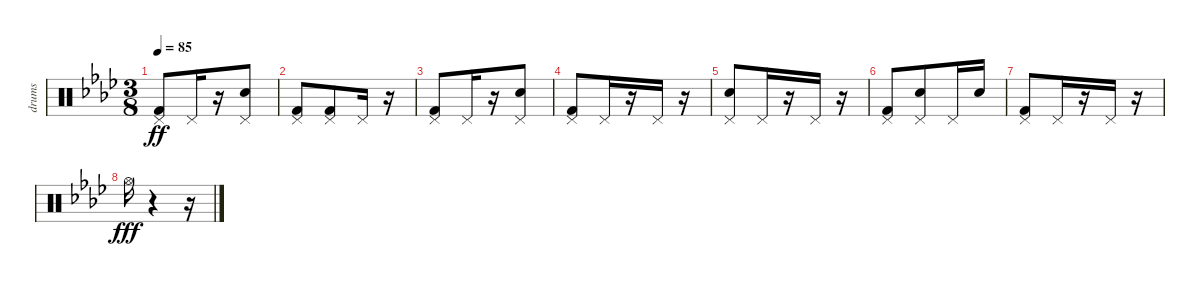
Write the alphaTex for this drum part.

\track ("drums" "drums") {instrument percussion}
\staff {score}
\articulation defaults
\ts (3 8)
\tempo 85
\clef neutral
\ks fminor
("Pedal Hi-Hat (hit)" "Kick (hit) 2").8{dy ff} "Pedal Hi-Hat (hit)".16 r.16 ("Electric Snare (hit)" "Pedal Hi-Hat (hit)").8 |
("Pedal Hi-Hat (hit)" "Kick (hit) 2").8 ("Kick (hit) 2" "Pedal Hi-Hat (hit)").8 "Pedal Hi-Hat (hit)".16 r.16 |
("Pedal Hi-Hat (hit)" "Kick (hit) 2").8 "Pedal Hi-Hat (hit)".16 r.16 ("Pedal Hi-Hat (hit)" "Electric Snare (hit)").8 |
("Kick (hit) 2" "Pedal Hi-Hat (hit)").8 "Pedal Hi-Hat (hit)".16 r.16 "Pedal Hi-Hat (hit)".16 r.16 |
("Electric Snare (hit)" "Pedal Hi-Hat (hit)").8 "Pedal Hi-Hat (hit)".16 r.16 "Pedal Hi-Hat (hit)".16 r.16 |
("Pedal Hi-Hat (hit)" "Kick (hit) 2").8 ("Pedal Hi-Hat (hit)" "Electric Snare (hit)").8 "Pedal Hi-Hat (hit)".16 "Electric Snare (hit)".16 |
("Pedal Hi-Hat (hit)" "Kick (hit) 2").8 "Pedal Hi-Hat (hit)".16 r.16 "Pedal Hi-Hat (hit)".16 r.16 |
"Hi-Hat (open)".16{dy fff} r.4 r.16
